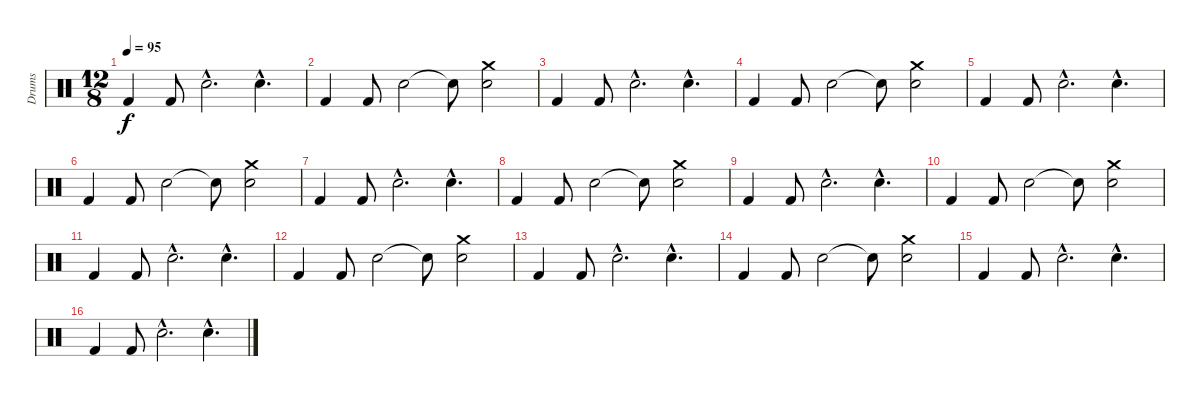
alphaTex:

\track ("Drums" "Drums") {instrument percussion}
\staff {score}
\articulation defaults
\ts (12 8)
\tempo 95
\clef neutral
\ks c "Kick (hit) 2".4{dy f} "Kick (hit) 2".8 "Snare (hit) 2"{hac}.2{d} "Snare (hit) 2"{hac}.4{d}
|
"Kick (hit) 2".4 "Kick (hit) 2".8 "Snare (hit) 2".2 "Snare (hit)"{t}.8 ("Snare (hit) 2" "Crash medium (hit)").2 |
"Kick (hit) 2".4 "Kick (hit) 2".8 "Snare (hit) 2"{hac}.2{d} "Snare (hit) 2"{hac}.4{d} |
"Kick (hit) 2".4 "Kick (hit) 2".8 "Snare (hit) 2".2 "Snare (hit)"{t}.8 ("Snare (hit) 2" "Crash medium (hit)").2 |
"Kick (hit) 2".4 "Kick (hit) 2".8 "Snare (hit) 2"{hac}.2{d} "Snare (hit) 2"{hac}.4{d} |
"Kick (hit) 2".4 "Kick (hit) 2".8 "Snare (hit) 2".2 "Snare (hit)"{t}.8 ("Snare (hit) 2" "Crash medium (hit)").2 |
"Kick (hit) 2".4 "Kick (hit) 2".8 "Snare (hit) 2"{hac}.2{d} "Snare (hit) 2"{hac}.4{d} |
"Kick (hit) 2".4 "Kick (hit) 2".8 "Snare (hit) 2".2 "Snare (hit)"{t}.8 ("Snare (hit) 2" "Crash medium (hit)").2 |
"Kick (hit) 2".4 "Kick (hit) 2".8 "Snare (hit) 2"{hac}.2{d} "Snare (hit) 2"{hac}.4{d} |
"Kick (hit) 2".4 "Kick (hit) 2".8 "Snare (hit) 2".2 "Snare (hit)"{t}.8 ("Snare (hit) 2" "Crash medium (hit)").2 |
"Kick (hit) 2".4 "Kick (hit) 2".8 "Snare (hit) 2"{hac}.2{d} "Snare (hit) 2"{hac}.4{d} |
"Kick (hit) 2".4 "Kick (hit) 2".8 "Snare (hit) 2".2 "Snare (hit)"{t}.8 ("Snare (hit) 2" "Crash medium (hit)").2 |
"Kick (hit) 2".4 "Kick (hit) 2".8 "Snare (hit) 2"{hac}.2{d} "Snare (hit) 2"{hac}.4{d} |
"Kick (hit) 2".4 "Kick (hit) 2".8 "Snare (hit) 2".2 "Snare (hit)"{t}.8 ("Snare (hit) 2" "Crash medium (hit)").2 |
"Kick (hit) 2".4 "Kick (hit) 2".8 "Snare (hit) 2"{hac}.2{d} "Snare (hit) 2"{hac}.4{d} |
"Kick (hit) 2".4 "Kick (hit) 2".8 "Snare (hit) 2"{hac}.2{d} "Snare (hit) 2"{hac}.4{d}
